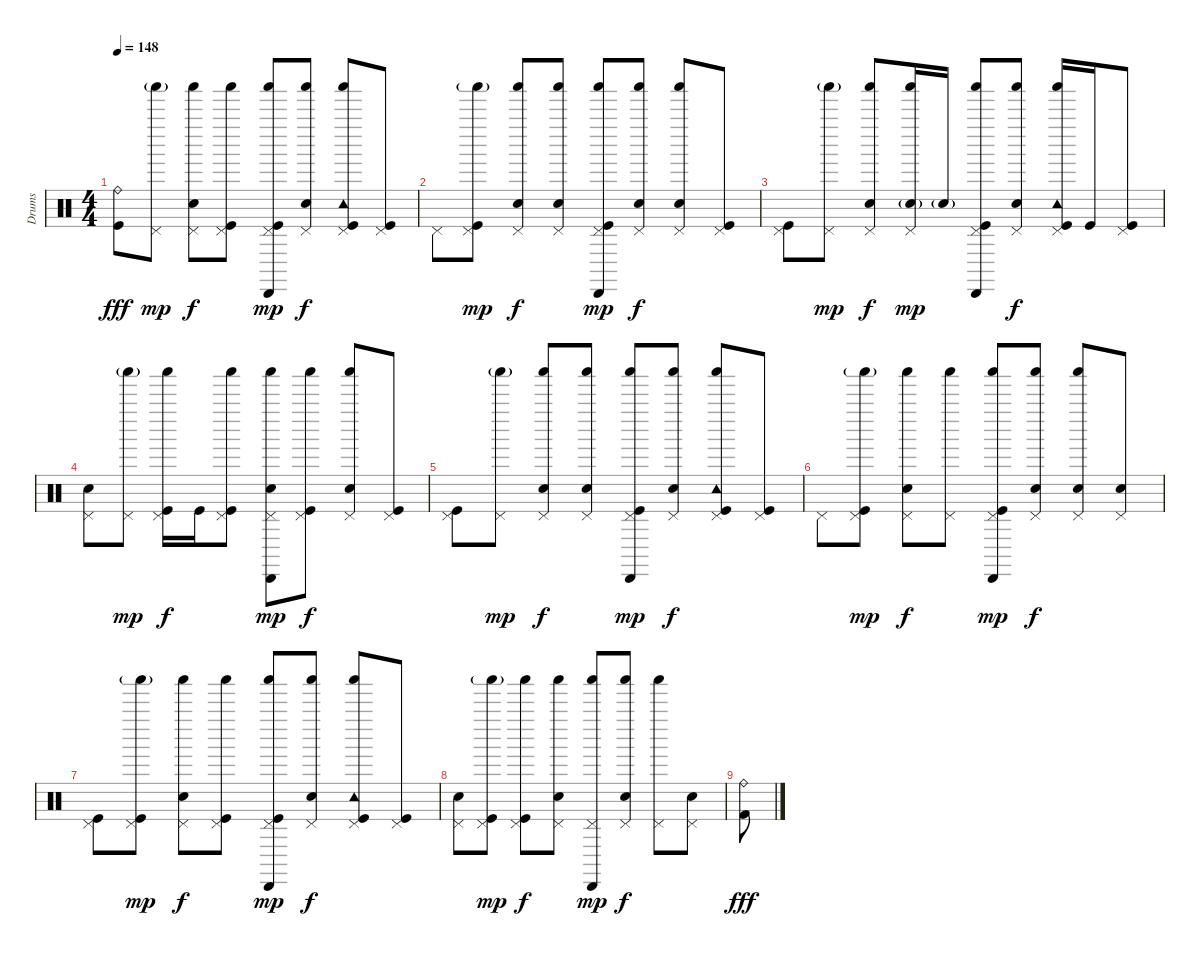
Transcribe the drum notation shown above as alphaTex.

\track ("Drums" "Drums") {instrument percussion}
\staff {score}
\articulation defaults
\ts (4 4)
\tempo 148
\clef neutral
\ks c
("Ride (bell)" "Kick (hit)").8{dy fff} ("Pedal Hi-Hat (hit)" "Shaker (hit)"{g}).8{dy mp} ("Pedal Hi-Hat (hit)" "Electric Snare (hit)" "Shaker (hit)").8{dy f} ("Pedal Hi-Hat (hit)" "Kick (hit)" "Shaker (hit)").8 ("Pedal Hi-Hat (hit)" "Kick (hit)" "Cabasa (hit)" "Shaker (hit)").8{dy mp} ("Pedal Hi-Hat (hit)" "Electric Snare (hit)" "Shaker (hit)").8{dy f} ("Pedal Hi-Hat (hit)" "Tambourine (hit)" "Kick (hit)" "Shaker (hit)").8 ("Pedal Hi-Hat (hit)" "Kick (hit)").8 |
"Pedal Hi-Hat (hit)".8 ("Pedal Hi-Hat (hit)" "Kick (hit)" "Shaker (hit)"{g}).8{dy mp} ("Pedal Hi-Hat (hit)" "Electric Snare (hit)" "Shaker (hit)").8{dy f} ("Pedal Hi-Hat (hit)" "Electric Snare (hit)" "Shaker (hit)").8 ("Pedal Hi-Hat (hit)" "Kick (hit)" "Cabasa (hit)" "Shaker (hit)").8{dy mp} ("Pedal Hi-Hat (hit)" "Electric Snare (hit)" "Shaker (hit)").8{dy f} ("Pedal Hi-Hat (hit)" "Electric Snare (hit)" "Shaker (hit)").8 ("Pedal Hi-Hat (hit)" "Kick (hit)").8 |
("Pedal Hi-Hat (hit)" "Kick (hit)").8 ("Pedal Hi-Hat (hit)" "Shaker (hit)"{g}).8{dy mp} ("Pedal Hi-Hat (hit)" "Electric Snare (hit)" "Shaker (hit)").8{dy f} ("Pedal Hi-Hat (hit)" "Electric Snare (hit)"{g} "Shaker (hit)").16{dy mp} "Electric Snare (hit)"{g}.16 ("Pedal Hi-Hat (hit)" "Kick (hit)" "Cabasa (hit)" "Shaker (hit)").8 ("Pedal Hi-Hat (hit)" "Electric Snare (hit)" "Shaker (hit)").8{dy f} ("Pedal Hi-Hat (hit)" "Tambourine (hit)" "Kick (hit)" "Shaker (hit)").16 "Kick (hit)".16 ("Pedal Hi-Hat (hit)" "Kick (hit)").8 |
("Pedal Hi-Hat (hit)" "Electric Snare (hit)").8 ("Pedal Hi-Hat (hit)" "Shaker (hit)"{g}).8{dy mp} ("Pedal Hi-Hat (hit)" "Kick (hit)" "Shaker (hit)").16{dy f} "Kick (hit)".16 ("Pedal Hi-Hat (hit)" "Kick (hit)" "Shaker (hit)").8 ("Pedal Hi-Hat (hit)" "Electric Snare (hit)" "Cabasa (hit)" "Shaker (hit)").8{dy mp} ("Pedal Hi-Hat (hit)" "Kick (hit)" "Shaker (hit)").8{dy f} ("Pedal Hi-Hat (hit)" "Electric Snare (hit)" "Shaker (hit)").8 ("Pedal Hi-Hat (hit)" "Kick (hit)").8 |
("Pedal Hi-Hat (hit)" "Kick (hit)").8 ("Pedal Hi-Hat (hit)" "Shaker (hit)"{g}).8{dy mp} ("Pedal Hi-Hat (hit)" "Electric Snare (hit)" "Shaker (hit)").8{dy f} ("Pedal Hi-Hat (hit)" "Electric Snare (hit)" "Shaker (hit)").8 ("Pedal Hi-Hat (hit)" "Kick (hit)" "Cabasa (hit)" "Shaker (hit)").8{dy mp} ("Pedal Hi-Hat (hit)" "Electric Snare (hit)" "Shaker (hit)").8{dy f} ("Pedal Hi-Hat (hit)" "Tambourine (hit)" "Kick (hit)" "Shaker (hit)").8 ("Pedal Hi-Hat (hit)" "Kick (hit)").8 |
"Pedal Hi-Hat (hit)".8 ("Pedal Hi-Hat (hit)" "Kick (hit)" "Shaker (hit)"{g}).8{dy mp} ("Pedal Hi-Hat (hit)" "Electric Snare (hit)" "Shaker (hit)").8{dy f} ("Pedal Hi-Hat (hit)" "Shaker (hit)").8 ("Pedal Hi-Hat (hit)" "Kick (hit)" "Cabasa (hit)" "Shaker (hit)").8{dy mp} ("Pedal Hi-Hat (hit)" "Electric Snare (hit)" "Shaker (hit)").8{dy f} ("Pedal Hi-Hat (hit)" "Electric Snare (hit)" "Shaker (hit)").8 ("Pedal Hi-Hat (hit)" "Electric Snare (hit)").8 |
("Pedal Hi-Hat (hit)" "Kick (hit)").8 ("Pedal Hi-Hat (hit)" "Kick (hit)" "Shaker (hit)"{g}).8{dy mp} ("Pedal Hi-Hat (hit)" "Electric Snare (hit)" "Shaker (hit)").8{dy f} ("Pedal Hi-Hat (hit)" "Kick (hit)" "Shaker (hit)").8 ("Pedal Hi-Hat (hit)" "Kick (hit)" "Cabasa (hit)" "Shaker (hit)").8{dy mp} ("Pedal Hi-Hat (hit)" "Electric Snare (hit)" "Shaker (hit)").8{dy f} ("Pedal Hi-Hat (hit)" "Tambourine (hit)" "Kick (hit)" "Shaker (hit)").8 ("Pedal Hi-Hat (hit)" "Kick (hit)").8 |
("Pedal Hi-Hat (hit)" "Electric Snare (hit)").8 ("Pedal Hi-Hat (hit)" "Kick (hit)" "Shaker (hit)"{g}).8{dy mp} ("Pedal Hi-Hat (hit)" "Kick (hit)" "Shaker (hit)").8{dy f} ("Pedal Hi-Hat (hit)" "Electric Snare (hit)" "Shaker (hit)").8 ("Pedal Hi-Hat (hit)" "Cabasa (hit)" "Shaker (hit)").8{dy mp} ("Pedal Hi-Hat (hit)" "Electric Snare (hit)" "Shaker (hit)").8{dy f} ("Pedal Hi-Hat (hit)" "Shaker (hit)").8 ("Pedal Hi-Hat (hit)" "Electric Snare (hit)").8 |
("Ride (bell)" "Kick (hit) 2").8{dy fff}
